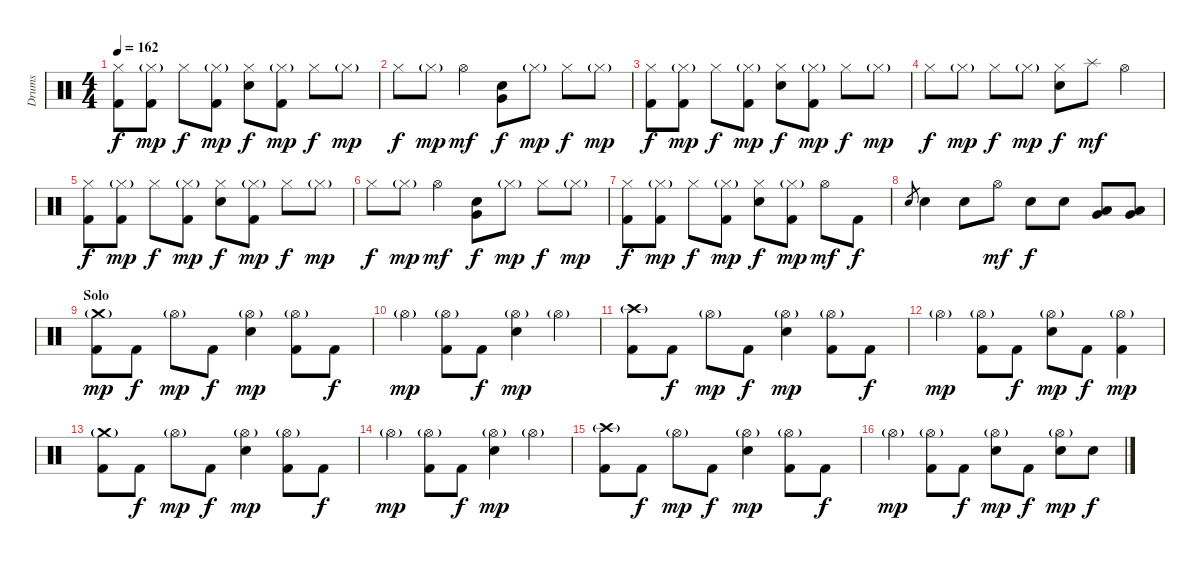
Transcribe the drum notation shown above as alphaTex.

\track ("Drums" "Drums") {instrument percussion}
\staff {score}
\articulation defaults
\ts (4 4)
\tempo 162
\clef neutral
\ks c
("Hi-Hat (closed)" "Kick (hit) 2").8{dy f} ("Hi-Hat (closed)"{g} "Kick (hit) 2").8{dy mp} "Hi-Hat (closed)".8{dy f} ("Hi-Hat (closed)"{g} "Kick (hit) 2").8{dy mp} ("Hi-Hat (closed)" "Snare (hit) 2").8{dy f} ("Hi-Hat (closed)"{g} "Kick (hit) 2").8{dy mp} "Hi-Hat (closed)".8{dy f} "Hi-Hat (closed)"{g}.8{dy mp} |
"Hi-Hat (closed)".8{dy f} "Hi-Hat (closed)"{g}.8{dy mp} "Hi-Hat (open)".4{dy mf} ("Very Low Tom (hit)" "Snare (hit) 2").8{dy f} "Hi-Hat (closed)"{g}.8{dy mp} "Hi-Hat (closed)".8{dy f} "Hi-Hat (closed)"{g}.8{dy mp} |
("Hi-Hat (closed)" "Kick (hit) 2").8{dy f} ("Hi-Hat (closed)"{g} "Kick (hit) 2").8{dy mp} "Hi-Hat (closed)".8{dy f} ("Hi-Hat (closed)"{g} "Kick (hit) 2").8{dy mp} ("Hi-Hat (closed)" "Snare (hit) 2").8{dy f} ("Hi-Hat (closed)"{g} "Kick (hit) 2").8{dy mp} "Hi-Hat (closed)".8{dy f} "Hi-Hat (closed)"{g}.8{dy mp} |
"Hi-Hat (closed)".8{dy f} "Hi-Hat (closed)"{g}.8{dy mp} "Hi-Hat (closed)".8{dy f} "Hi-Hat (closed)"{g}.8{dy mp} ("Hi-Hat (closed)" "Snare (hit) 2").8{dy f} "Splash (hit)".8{dy mf} "Hi-Hat (open)".4 |
("Hi-Hat (closed)" "Kick (hit) 2").8{dy f} ("Hi-Hat (closed)"{g} "Kick (hit) 2").8{dy mp} "Hi-Hat (closed)".8{dy f} ("Hi-Hat (closed)"{g} "Kick (hit) 2").8{dy mp} ("Hi-Hat (closed)" "Snare (hit) 2").8{dy f} ("Hi-Hat (closed)"{g} "Kick (hit) 2").8{dy mp} "Hi-Hat (closed)".8{dy f} "Hi-Hat (closed)"{g}.8{dy mp} |
"Hi-Hat (closed)".8{dy f} "Hi-Hat (closed)"{g}.8{dy mp} "Hi-Hat (open)".4{dy mf} ("Very Low Tom (hit)" "Snare (hit) 2").8{dy f} "Hi-Hat (closed)"{g}.8{dy mp} "Hi-Hat (closed)".8{dy f} "Hi-Hat (closed)"{g}.8{dy mp} |
("Hi-Hat (closed)" "Kick (hit) 2").8{dy f} ("Hi-Hat (closed)"{g} "Kick (hit) 2").8{dy mp} "Hi-Hat (closed)".8{dy f} ("Hi-Hat (closed)"{g} "Kick (hit) 2").8{dy mp} ("Hi-Hat (closed)" "Snare (hit) 2").8{dy f} ("Hi-Hat (closed)"{g} "Kick (hit) 2").8{dy mp} "Hi-Hat (open)".8{dy mf} "Kick (hit) 2".8{dy f} |
"Snare (hit) 2".8{gr} "Snare (hit) 2".4 "Snare (hit) 2".8 "Hi-Hat (open)".8{dy mf} "Snare (hit) 2".8{dy f} "Snare (hit) 2".8 ("Low Tom (hit)" "Very Low Tom (hit)").8 ("Low Tom (hit)" "Very Low Tom (hit)").8 |
\section ("" "Solo")
("Crash medium (hit)"{g} "Kick (hit) 2").8{dy mp} "Kick (hit) 2".8{dy f} "Hi-Hat (open)"{g}.8{dy mp} "Kick (hit) 2".8{dy f} ("Hi-Hat (open)"{g} "Snare (hit) 2").4{dy mp} ("Hi-Hat (open)"{g} "Kick (hit) 2").8 "Kick (hit) 2".8{dy f} |
"Hi-Hat (open)"{g}.4{dy mp} ("Hi-Hat (open)"{g} "Kick (hit) 2").8 "Kick (hit) 2".8{dy f} ("Hi-Hat (open)"{g} "Snare (hit) 2").4{dy mp} "Hi-Hat (open)"{g}.4 |
("Crash high (hit)"{g} "Kick (hit) 2").8 "Kick (hit) 2".8{dy f} "Hi-Hat (open)"{g}.8{dy mp} "Kick (hit) 2".8{dy f} ("Hi-Hat (open)"{g} "Snare (hit) 2").4{dy mp} ("Hi-Hat (open)"{g} "Kick (hit) 2").8 "Kick (hit) 2".8{dy f} |
"Hi-Hat (open)"{g}.4{dy mp} ("Hi-Hat (open)"{g} "Kick (hit) 2").8 "Kick (hit) 2".8{dy f} ("Hi-Hat (open)"{g} "Snare (hit) 2").8{dy mp} "Kick (hit) 2".8{dy f} ("Hi-Hat (open)"{g} "Kick (hit) 2").4{dy mp} |
("Crash medium (hit)"{g} "Kick (hit) 2").8 "Kick (hit) 2".8{dy f} "Hi-Hat (open)"{g}.8{dy mp} "Kick (hit) 2".8{dy f} ("Hi-Hat (open)"{g} "Snare (hit) 2").4{dy mp} ("Hi-Hat (open)"{g} "Kick (hit) 2").8 "Kick (hit) 2".8{dy f} |
"Hi-Hat (open)"{g}.4{dy mp} ("Hi-Hat (open)"{g} "Kick (hit) 2").8 "Kick (hit) 2".8{dy f} ("Hi-Hat (open)"{g} "Snare (hit) 2").4{dy mp} "Hi-Hat (open)"{g}.4 |
("Crash high (hit)"{g} "Kick (hit) 2").8 "Kick (hit) 2".8{dy f} "Hi-Hat (open)"{g}.8{dy mp} "Kick (hit) 2".8{dy f} ("Hi-Hat (open)"{g} "Snare (hit) 2").4{dy mp} ("Hi-Hat (open)"{g} "Kick (hit) 2").8 "Kick (hit) 2".8{dy f} |
"Hi-Hat (open)"{g}.4{dy mp} ("Hi-Hat (open)"{g} "Kick (hit) 2").8 "Kick (hit) 2".8{dy f} ("Hi-Hat (open)"{g} "Snare (hit) 2").8{dy mp} "Kick (hit) 2".8{dy f} ("Hi-Hat (open)"{g} "Snare (hit) 2").8{dy mp} "Snare (hit) 2".8{dy f}
